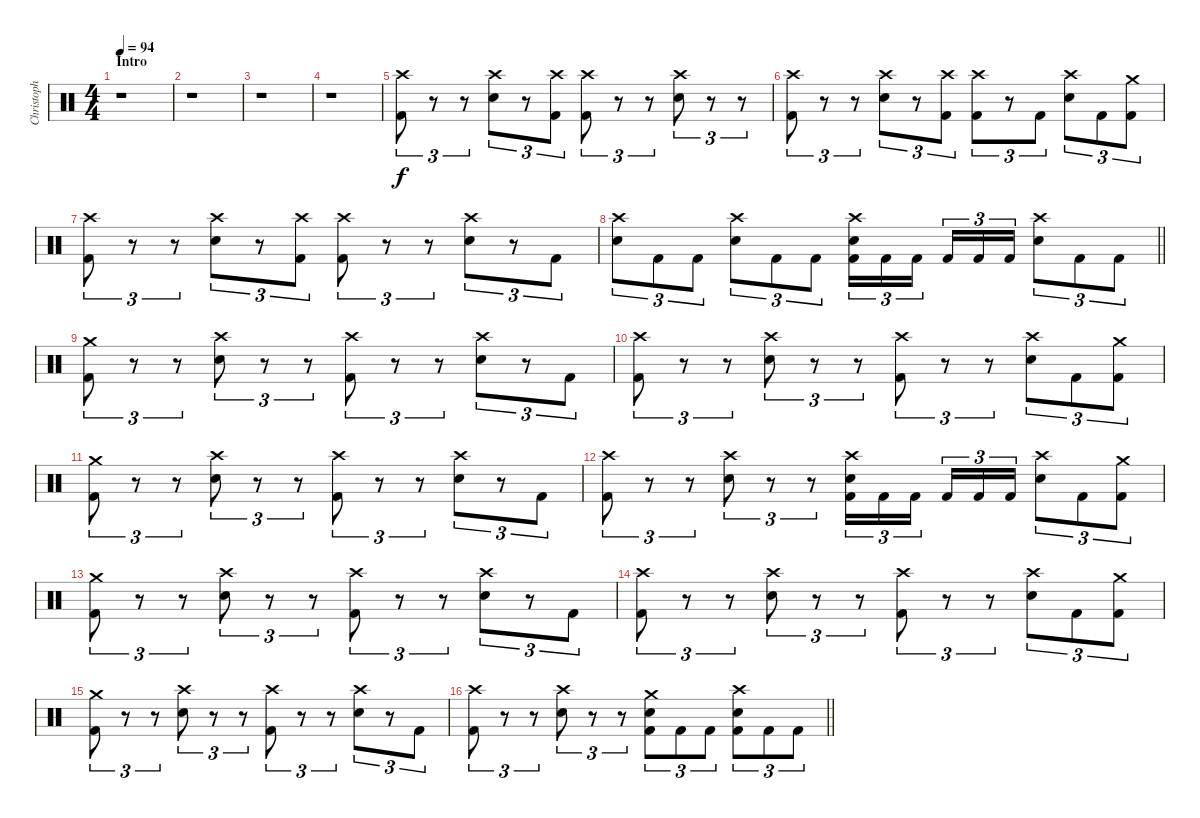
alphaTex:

\track ("Christoph Schneider [Drums]" "Christoph ") {instrument percussion}
\staff {score}
\articulation defaults
\ts (4 4)
\section ("" "Intro")
\tempo 94
\clef neutral
\ks c
r.1{dy f} |
r.1 |
r.1 |
r.1 |
("Crash high (hit)" "Kick (hit) 2").8{tu (3 2)} r.8{tu (3 2)} r.8{tu (3 2)} ("Crash high (hit)" "Electric Snare (hit)").8{tu (3 2)} r.8{tu (3 2)} ("Crash high (hit)" "Kick (hit) 2").8{tu (3 2)} ("Crash high (hit)" "Kick (hit) 2").8{tu (3 2)} r.8{tu (3 2)} r.8{tu (3 2)} ("Crash high (hit)" "Electric Snare (hit)").8{tu (3 2)} r.8{tu (3 2)} r.8{tu (3 2)} |
("Crash high (hit)" "Kick (hit) 2").8{tu (3 2)} r.8{tu (3 2)} r.8{tu (3 2)} ("Crash high (hit)" "Electric Snare (hit)").8{tu (3 2)} r.8{tu (3 2)} ("Crash high (hit)" "Kick (hit) 2").8{tu (3 2)} ("Crash high (hit)" "Kick (hit) 2").8{tu (3 2)} r.8{tu (3 2)} "Kick (hit) 2".8{tu (3 2)} ("Crash high (hit)" "Electric Snare (hit)").8{tu (3 2)} "Kick (hit) 2".8{tu (3 2)} ("Crash medium (hit)" "Kick (hit) 2").8{tu (3 2)} |
("Crash high (hit)" "Kick (hit) 2").8{tu (3 2)} r.8{tu (3 2)} r.8{tu (3 2)} ("Crash high (hit)" "Electric Snare (hit)").8{tu (3 2)} r.8{tu (3 2)} ("Crash high (hit)" "Kick (hit) 2").8{tu (3 2)} ("Crash high (hit)" "Kick (hit) 2").8{tu (3 2)} r.8{tu (3 2)} r.8{tu (3 2)} ("Crash high (hit)" "Electric Snare (hit)").8{tu (3 2)} r.8{tu (3 2)} "Kick (hit) 2".8{tu (3 2)} |
\barLineRight lightlight
("Crash high (hit)" "Electric Snare (hit)").8{tu (3 2)} "Kick (hit) 2".8{tu (3 2)} "Kick (hit) 2".8{tu (3 2)} ("Crash high (hit)" "Electric Snare (hit)").8{tu (3 2)} "Kick (hit) 2".8{tu (3 2)} "Kick (hit) 2".8{tu (3 2)} ("Crash high (hit)" "Electric Snare (hit)" "Kick (hit) 2").16{tu (3 2)} "Kick (hit) 2".16{tu (3 2)} "Kick (hit) 2".16{tu (3 2)} "Kick (hit) 2".16{tu (3 2)} "Kick (hit) 2".16{tu (3 2)} "Kick (hit) 2".16{tu (3 2)} ("Crash high (hit)" "Electric Snare (hit)").8{tu (3 2)} "Kick (hit) 2".8{tu (3 2)} "Kick (hit) 2".8{tu (3 2)} |
\section ("" "")
("Crash medium (hit)" "Kick (hit) 2").8{tu (3 2)} r.8{tu (3 2)} r.8{tu (3 2)} ("Crash high (hit)" "Electric Snare (hit)").8{tu (3 2)} r.8{tu (3 2)} r.8{tu (3 2)} ("Crash high (hit)" "Kick (hit) 2").8{tu (3 2)} r.8{tu (3 2)} r.8{tu (3 2)} ("Crash high (hit)" "Electric Snare (hit)").8{tu (3 2)} r.8{tu (3 2)} "Kick (hit) 2".8{tu (3 2)} |
("Crash high (hit)" "Kick (hit) 2").8{tu (3 2)} r.8{tu (3 2)} r.8{tu (3 2)} ("Crash high (hit)" "Electric Snare (hit)").8{tu (3 2)} r.8{tu (3 2)} r.8{tu (3 2)} ("Crash high (hit)" "Kick (hit) 2").8{tu (3 2)} r.8{tu (3 2)} r.8{tu (3 2)} ("Crash high (hit)" "Electric Snare (hit)").8{tu (3 2)} "Kick (hit) 2".8{tu (3 2)} ("Crash medium (hit)" "Kick (hit) 2").8{tu (3 2)} |
("Crash medium (hit)" "Kick (hit) 2").8{tu (3 2)} r.8{tu (3 2)} r.8{tu (3 2)} ("Crash high (hit)" "Electric Snare (hit)").8{tu (3 2)} r.8{tu (3 2)} r.8{tu (3 2)} ("Crash high (hit)" "Kick (hit) 2").8{tu (3 2)} r.8{tu (3 2)} r.8{tu (3 2)} ("Crash high (hit)" "Electric Snare (hit)").8{tu (3 2)} r.8{tu (3 2)} "Kick (hit) 2".8{tu (3 2)} |
("Crash high (hit)" "Kick (hit) 2").8{tu (3 2)} r.8{tu (3 2)} r.8{tu (3 2)} ("Crash high (hit)" "Electric Snare (hit)").8{tu (3 2)} r.8{tu (3 2)} r.8{tu (3 2)} ("Crash high (hit)" "Electric Snare (hit)" "Kick (hit) 2").16{tu (3 2)} "Kick (hit) 2".16{tu (3 2)} "Kick (hit) 2".16{tu (3 2)} "Kick (hit) 2".16{tu (3 2)} "Kick (hit) 2".16{tu (3 2)} "Kick (hit) 2".16{tu (3 2)} ("Crash high (hit)" "Electric Snare (hit)").8{tu (3 2)} "Kick (hit) 2".8{tu (3 2)} ("Crash medium (hit)" "Kick (hit) 2").8{tu (3 2)} |
("Crash medium (hit)" "Kick (hit) 2").8{tu (3 2)} r.8{tu (3 2)} r.8{tu (3 2)} ("Crash high (hit)" "Electric Snare (hit)").8{tu (3 2)} r.8{tu (3 2)} r.8{tu (3 2)} ("Crash high (hit)" "Kick (hit) 2").8{tu (3 2)} r.8{tu (3 2)} r.8{tu (3 2)} ("Crash high (hit)" "Electric Snare (hit)").8{tu (3 2)} r.8{tu (3 2)} "Kick (hit) 2".8{tu (3 2)} |
("Crash high (hit)" "Kick (hit) 2").8{tu (3 2)} r.8{tu (3 2)} r.8{tu (3 2)} ("Crash high (hit)" "Electric Snare (hit)").8{tu (3 2)} r.8{tu (3 2)} r.8{tu (3 2)} ("Crash high (hit)" "Kick (hit) 2").8{tu (3 2)} r.8{tu (3 2)} r.8{tu (3 2)} ("Crash high (hit)" "Electric Snare (hit)").8{tu (3 2)} "Kick (hit) 2".8{tu (3 2)} ("Crash medium (hit)" "Kick (hit) 2").8{tu (3 2)} |
("Crash medium (hit)" "Kick (hit) 2").8{tu (3 2)} r.8{tu (3 2)} r.8{tu (3 2)} ("Crash high (hit)" "Electric Snare (hit)").8{tu (3 2)} r.8{tu (3 2)} r.8{tu (3 2)} ("Crash high (hit)" "Kick (hit) 2").8{tu (3 2)} r.8{tu (3 2)} r.8{tu (3 2)} ("Crash high (hit)" "Electric Snare (hit)").8{tu (3 2)} r.8{tu (3 2)} "Kick (hit) 2".8{tu (3 2)} |
\barLineRight lightlight
("Crash high (hit)" "Kick (hit) 2").8{tu (3 2)} r.8{tu (3 2)} r.8{tu (3 2)} ("Crash high (hit)" "Electric Snare (hit)").8{tu (3 2)} r.8{tu (3 2)} r.8{tu (3 2)} ("Crash medium (hit)" "Electric Snare (hit)" "Kick (hit) 2").8{tu (3 2)} "Kick (hit) 2".8{tu (3 2)} "Kick (hit) 2".8{tu (3 2)} ("Crash high (hit)" "Electric Snare (hit)" "Kick (hit) 2").8{tu (3 2)} "Kick (hit) 2".8{tu (3 2)} "Kick (hit) 2".8{tu (3 2)}
